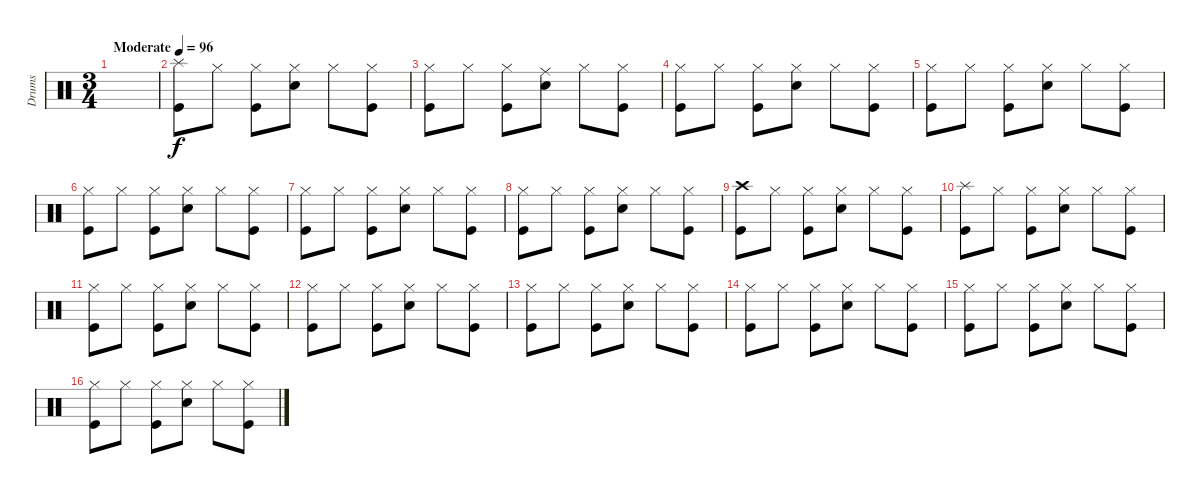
\track ("Drums" "Drums") {instrument percussion}
\staff {score}
\articulation defaults
\ts (3 4)
\tempo (96 "Moderate")
\clef neutral
\ks c
|
("Splash (hit)" "Kick (hit)").8 "Hi-Hat (closed)".8 ("Hi-Hat (closed)" "Kick (hit)").8 ("Hi-Hat (closed)" "Snare (hit) 2").8 "Hi-Hat (closed)".8 ("Hi-Hat (closed)" "Kick (hit)").8 |
("Hi-Hat (closed)" "Kick (hit)").8 "Hi-Hat (closed)".8 ("Hi-Hat (closed)" "Kick (hit)").8 ("Ride (middle)" "Snare (hit) 2").8 "Hi-Hat (closed)".8 ("Hi-Hat (closed)" "Kick (hit)").8 |
("Hi-Hat (closed)" "Kick (hit)").8 "Hi-Hat (closed)".8 ("Hi-Hat (closed)" "Kick (hit)").8 ("Hi-Hat (closed)" "Snare (hit) 2").8 "Hi-Hat (closed)".8 ("Hi-Hat (closed)" "Kick (hit)").8 |
("Hi-Hat (closed)" "Kick (hit)").8 "Hi-Hat (closed)".8 ("Hi-Hat (closed)" "Kick (hit)").8 ("Hi-Hat (closed)" "Snare (hit) 2").8 "Hi-Hat (closed)".8 ("Hi-Hat (closed)" "Kick (hit)").8 |
("Hi-Hat (closed)" "Kick (hit)").8 "Hi-Hat (closed)".8 ("Hi-Hat (closed)" "Kick (hit)").8 ("Hi-Hat (closed)" "Snare (hit) 2").8 "Hi-Hat (closed)".8 ("Hi-Hat (closed)" "Kick (hit)").8 |
("Hi-Hat (closed)" "Kick (hit)").8 "Hi-Hat (closed)".8 ("Hi-Hat (closed)" "Kick (hit)").8 ("Hi-Hat (closed)" "Snare (hit) 2").8 "Hi-Hat (closed)".8 ("Hi-Hat (closed)" "Kick (hit)").8 |
("Hi-Hat (closed)" "Kick (hit)").8 "Hi-Hat (closed)".8 ("Hi-Hat (closed)" "Kick (hit)").8 ("Hi-Hat (closed)" "Snare (hit) 2").8 "Hi-Hat (closed)".8 ("Hi-Hat (closed)" "Kick (hit)").8 |
("Crash high (hit)" "Kick (hit)").8 "Hi-Hat (closed)".8 ("Hi-Hat (closed)" "Kick (hit)").8 ("Hi-Hat (closed)" "Snare (hit) 2").8 "Hi-Hat (closed)".8 ("Hi-Hat (closed)" "Kick (hit)").8 |
("Splash (hit)" "Kick (hit)").8 "Hi-Hat (closed)".8 ("Hi-Hat (closed)" "Kick (hit)").8 ("Hi-Hat (closed)" "Snare (hit) 2").8 "Hi-Hat (closed)".8 ("Hi-Hat (closed)" "Kick (hit)").8 |
("Hi-Hat (closed)" "Kick (hit)").8 "Hi-Hat (closed)".8 ("Hi-Hat (closed)" "Kick (hit)").8 ("Hi-Hat (closed)" "Snare (hit) 2").8 "Hi-Hat (closed)".8 ("Hi-Hat (closed)" "Kick (hit)").8 |
("Hi-Hat (closed)" "Kick (hit)").8 "Hi-Hat (closed)".8 ("Hi-Hat (closed)" "Kick (hit)").8 ("Hi-Hat (closed)" "Snare (hit) 2").8 "Hi-Hat (closed)".8 ("Hi-Hat (closed)" "Kick (hit)").8 |
("Hi-Hat (closed)" "Kick (hit)").8 "Hi-Hat (closed)".8 ("Hi-Hat (closed)" "Kick (hit)").8 ("Hi-Hat (closed)" "Snare (hit) 2").8 "Hi-Hat (closed)".8 ("Hi-Hat (closed)" "Kick (hit)").8 |
("Hi-Hat (closed)" "Kick (hit)").8 "Hi-Hat (closed)".8 ("Hi-Hat (closed)" "Kick (hit)").8 ("Hi-Hat (closed)" "Snare (hit) 2").8 "Hi-Hat (closed)".8 ("Hi-Hat (closed)" "Kick (hit)").8 |
("Hi-Hat (closed)" "Kick (hit)").8 "Hi-Hat (closed)".8 ("Hi-Hat (closed)" "Kick (hit)").8 ("Hi-Hat (closed)" "Snare (hit) 2").8 "Hi-Hat (closed)".8 ("Hi-Hat (closed)" "Kick (hit)").8 |
("Hi-Hat (closed)" "Kick (hit)").8 "Hi-Hat (closed)".8 ("Hi-Hat (closed)" "Kick (hit)").8 ("Hi-Hat (closed)" "Snare (hit) 2").8 "Hi-Hat (closed)".8 ("Hi-Hat (closed)" "Kick (hit)").8
